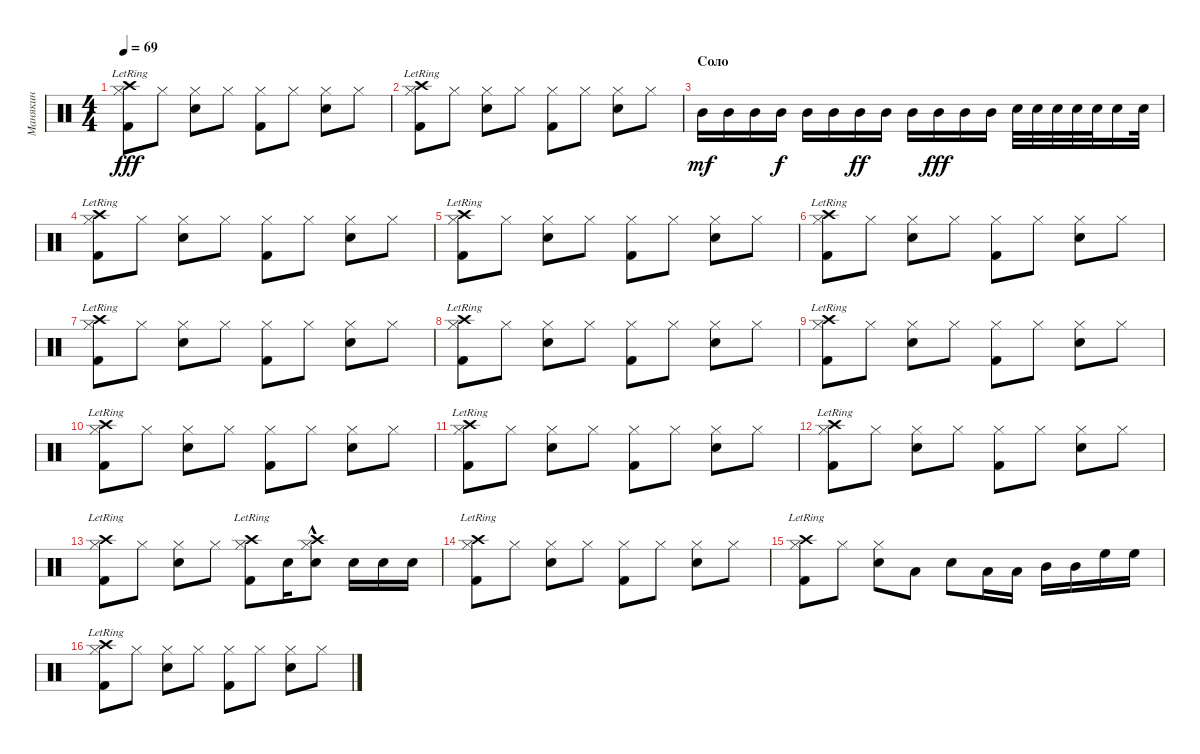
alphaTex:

\track ("Манякин" "Манякин") {instrument percussion}
\staff {score}
\articulation defaults
\ts (4 4)
\tempo 69
\clef neutral
\ks c
("Hi-Hat (closed)" "Kick (hit) 2" "Crash high (hit)"{lr}).8{dy fff} "Hi-Hat (closed)".8 ("Hi-Hat (closed)" "Snare (hit) 2").8 "Hi-Hat (closed)".8 ("Hi-Hat (closed)" "Kick (hit) 2").8 "Hi-Hat (closed)".8 ("Hi-Hat (closed)" "Snare (hit) 2").8 "Hi-Hat (closed)".8 |
("Hi-Hat (closed)" "Kick (hit) 2" "Crash high (hit)"{lr}).8 "Hi-Hat (closed)".8 ("Hi-Hat (closed)" "Snare (hit) 2").8 "Hi-Hat (closed)".8 ("Hi-Hat (closed)" "Kick (hit) 2").8 "Hi-Hat (closed)".8 ("Hi-Hat (closed)" "Snare (hit) 2").8 "Hi-Hat (closed)".8 |
\section ("" "Соло")
"Mid Tom (hit)".16{dy mf} "Mid Tom (hit)".16 "Mid Tom (hit)".16 "Mid Tom (hit)".16{dy f} "Mid Tom (hit)".16 "Mid Tom (hit)".16 "Mid Tom (hit)".16{dy ff} "Mid Tom (hit)".16 "Mid Tom (hit)".16 "Mid Tom (hit)".16{dy fff} "Mid Tom (hit)".16 "Mid Tom (hit)".16 "Snare (hit) 2".32 "Snare (hit) 2".32 "Snare (hit) 2".32 "Snare (hit) 2".32 "Snare (hit) 2".32 "Snare (hit) 2".16 "Snare (hit) 2".32 |
("Hi-Hat (closed)" "Kick (hit) 2" "Crash high (hit)"{lr}).8 "Hi-Hat (closed)".8 ("Hi-Hat (closed)" "Snare (hit) 2").8 "Hi-Hat (closed)".8 ("Hi-Hat (closed)" "Kick (hit) 2").8 "Hi-Hat (closed)".8 ("Hi-Hat (closed)" "Snare (hit) 2").8 "Hi-Hat (closed)".8 |
("Hi-Hat (closed)" "Kick (hit) 2" "Crash high (hit)"{lr}).8 "Hi-Hat (closed)".8 ("Hi-Hat (closed)" "Snare (hit) 2").8 "Hi-Hat (closed)".8 ("Hi-Hat (closed)" "Kick (hit) 2").8 "Hi-Hat (closed)".8 ("Hi-Hat (closed)" "Snare (hit) 2").8 "Hi-Hat (closed)".8 |
("Hi-Hat (closed)" "Kick (hit) 2" "Crash high (hit)"{lr}).8 "Hi-Hat (closed)".8 ("Hi-Hat (closed)" "Snare (hit) 2").8 "Hi-Hat (closed)".8 ("Hi-Hat (closed)" "Kick (hit) 2").8 "Hi-Hat (closed)".8 ("Hi-Hat (closed)" "Snare (hit) 2").8 "Hi-Hat (closed)".8 |
("Hi-Hat (closed)" "Kick (hit) 2" "Crash high (hit)"{lr}).8 "Hi-Hat (closed)".8 ("Hi-Hat (closed)" "Snare (hit) 2").8 "Hi-Hat (closed)".8 ("Hi-Hat (closed)" "Kick (hit) 2").8 "Hi-Hat (closed)".8 ("Hi-Hat (closed)" "Snare (hit) 2").8 "Hi-Hat (closed)".8 |
("Hi-Hat (closed)" "Kick (hit) 2" "Crash high (hit)"{lr}).8 "Hi-Hat (closed)".8 ("Hi-Hat (closed)" "Snare (hit) 2").8 "Hi-Hat (closed)".8 ("Hi-Hat (closed)" "Kick (hit) 2").8 "Hi-Hat (closed)".8 ("Hi-Hat (closed)" "Snare (hit) 2").8 "Hi-Hat (closed)".8 |
("Hi-Hat (closed)" "Kick (hit) 2" "Crash high (hit)"{lr}).8 "Hi-Hat (closed)".8 ("Hi-Hat (closed)" "Snare (hit) 2").8 "Hi-Hat (closed)".8 ("Hi-Hat (closed)" "Kick (hit) 2").8 "Hi-Hat (closed)".8 ("Hi-Hat (closed)" "Snare (hit) 2").8 "Hi-Hat (closed)".8 |
("Hi-Hat (closed)" "Kick (hit) 2" "Crash high (hit)"{lr}).8 "Hi-Hat (closed)".8 ("Hi-Hat (closed)" "Snare (hit) 2").8 "Hi-Hat (closed)".8 ("Hi-Hat (closed)" "Kick (hit) 2").8 "Hi-Hat (closed)".8 ("Hi-Hat (closed)" "Snare (hit) 2").8 "Hi-Hat (closed)".8 |
("Hi-Hat (closed)" "Kick (hit) 2" "Crash high (hit)"{lr}).8 "Hi-Hat (closed)".8 ("Hi-Hat (closed)" "Snare (hit) 2").8 "Hi-Hat (closed)".8 ("Hi-Hat (closed)" "Kick (hit) 2").8 "Hi-Hat (closed)".8 ("Hi-Hat (closed)" "Snare (hit) 2").8 "Hi-Hat (closed)".8 |
("Hi-Hat (closed)" "Kick (hit) 2" "Crash high (hit)"{lr}).8 "Hi-Hat (closed)".8 ("Hi-Hat (closed)" "Snare (hit) 2").8 "Hi-Hat (closed)".8 ("Hi-Hat (closed)" "Kick (hit) 2").8 "Hi-Hat (closed)".8 ("Hi-Hat (closed)" "Snare (hit) 2").8 "Hi-Hat (closed)".8 |
("Hi-Hat (closed)" "Kick (hit) 2" "Crash high (hit)"{lr}).8 "Hi-Hat (closed)".8 ("Hi-Hat (closed)" "Snare (hit) 2").8 "Hi-Hat (closed)".8 ("Hi-Hat (closed)" "Kick (hit) 2" "Crash high (hit)"{lr}).8 "Snare (hit) 2".16 ("Hi-Hat (closed)" "Snare (hit) 2" "Crash high (hit)"{hac}).8 "Snare (hit) 2".16 "Snare (hit) 2".16 "Snare (hit) 2".16 |
("Hi-Hat (closed)" "Kick (hit) 2" "Crash high (hit)"{lr}).8 "Hi-Hat (closed)".8 ("Hi-Hat (closed)" "Snare (hit) 2").8 "Hi-Hat (closed)".8 ("Hi-Hat (closed)" "Kick (hit) 2").8 "Hi-Hat (closed)".8 ("Hi-Hat (closed)" "Snare (hit) 2").8 "Hi-Hat (closed)".8 |
("Hi-Hat (closed)" "Kick (hit) 2" "Crash high (hit)"{lr}).8 "Hi-Hat (closed)".8 ("Hi-Hat (closed)" "Snare (hit) 2").8 "Low Floor Tom (hit)".8 "Snare (hit) 2".8 "Low Tom (hit)".16 "Low Tom (hit)".16 "Mid Tom (hit)".16 "Mid Tom (hit)".16 "High Floor Tom (hit)".16 "High Floor Tom (hit)".16 |
("Hi-Hat (closed)" "Kick (hit) 2" "Crash high (hit)"{lr}).8 "Hi-Hat (closed)".8 ("Hi-Hat (closed)" "Snare (hit) 2").8 "Hi-Hat (closed)".8 ("Hi-Hat (closed)" "Kick (hit) 2").8 "Hi-Hat (closed)".8 ("Hi-Hat (closed)" "Snare (hit) 2").8 "Hi-Hat (closed)".8
